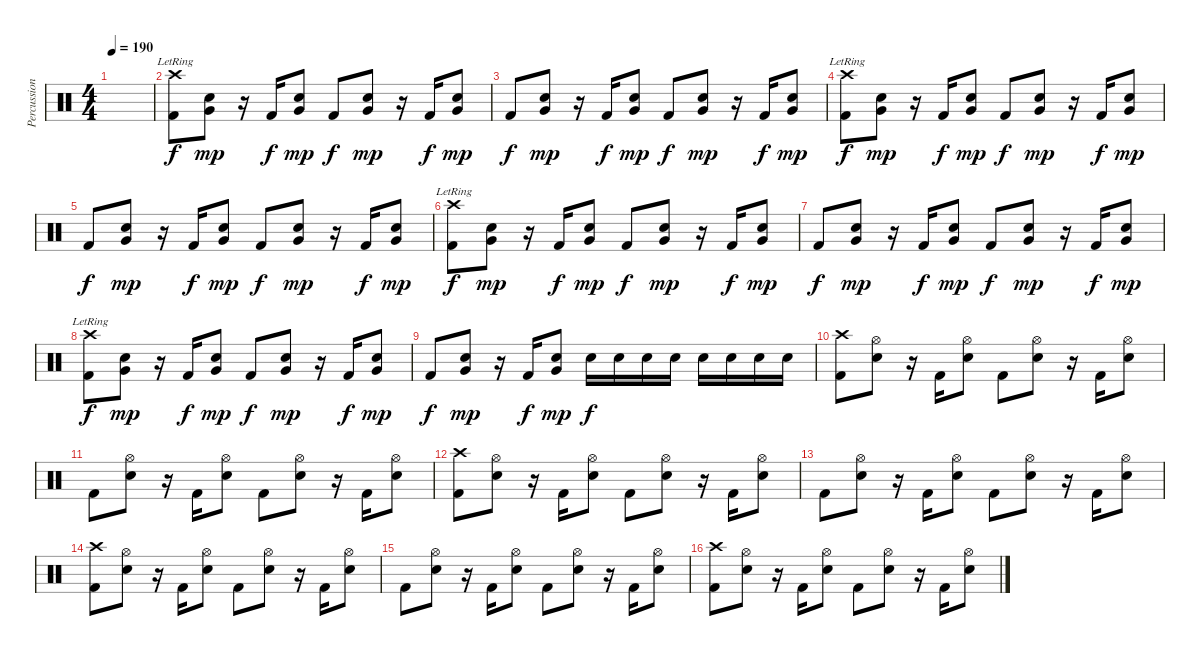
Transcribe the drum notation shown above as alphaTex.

\track ("Percussions" "Percussion") {instrument percussion}
\staff {score}
\articulation defaults
\ts (4 4)
\tempo 190
\clef neutral
\ks c
|
("Crash high (hit)"{lr} "Kick (hit) 2").8 ("Electric Snare (hit)" "Very Low Tom (hit)").8{dy mp} r.16 "Kick (hit) 2".16{dy f} ("Electric Snare (hit)" "Very Low Tom (hit)").8{dy mp} "Kick (hit) 2".8{dy f} ("Electric Snare (hit)" "Very Low Tom (hit)").8{dy mp} r.16 "Kick (hit) 2".16{dy f} ("Electric Snare (hit)" "Very Low Tom (hit)").8{dy mp} |
"Kick (hit) 2".8{dy f} ("Electric Snare (hit)" "Very Low Tom (hit)").8{dy mp} r.16 "Kick (hit) 2".16{dy f} ("Electric Snare (hit)" "Very Low Tom (hit)").8{dy mp} "Kick (hit) 2".8{dy f} ("Electric Snare (hit)" "Very Low Tom (hit)").8{dy mp} r.16 "Kick (hit) 2".16{dy f} ("Electric Snare (hit)" "Very Low Tom (hit)").8{dy mp} |
("Crash high (hit)"{lr} "Kick (hit) 2").8{dy f} ("Electric Snare (hit)" "Very Low Tom (hit)").8{dy mp} r.16 "Kick (hit) 2".16{dy f} ("Electric Snare (hit)" "Very Low Tom (hit)").8{dy mp} "Kick (hit) 2".8{dy f} ("Electric Snare (hit)" "Very Low Tom (hit)").8{dy mp} r.16 "Kick (hit) 2".16{dy f} ("Electric Snare (hit)" "Very Low Tom (hit)").8{dy mp} |
"Kick (hit) 2".8{dy f} ("Electric Snare (hit)" "Very Low Tom (hit)").8{dy mp} r.16 "Kick (hit) 2".16{dy f} ("Electric Snare (hit)" "Very Low Tom (hit)").8{dy mp} "Kick (hit) 2".8{dy f} ("Electric Snare (hit)" "Very Low Tom (hit)").8{dy mp} r.16 "Kick (hit) 2".16{dy f} ("Electric Snare (hit)" "Very Low Tom (hit)").8{dy mp} |
("Crash high (hit)"{lr} "Kick (hit) 2").8{dy f} ("Electric Snare (hit)" "Very Low Tom (hit)").8{dy mp} r.16 "Kick (hit) 2".16{dy f} ("Electric Snare (hit)" "Very Low Tom (hit)").8{dy mp} "Kick (hit) 2".8{dy f} ("Electric Snare (hit)" "Very Low Tom (hit)").8{dy mp} r.16 "Kick (hit) 2".16{dy f} ("Electric Snare (hit)" "Very Low Tom (hit)").8{dy mp} |
"Kick (hit) 2".8{dy f} ("Electric Snare (hit)" "Very Low Tom (hit)").8{dy mp} r.16 "Kick (hit) 2".16{dy f} ("Electric Snare (hit)" "Very Low Tom (hit)").8{dy mp} "Kick (hit) 2".8{dy f} ("Electric Snare (hit)" "Very Low Tom (hit)").8{dy mp} r.16 "Kick (hit) 2".16{dy f} ("Electric Snare (hit)" "Very Low Tom (hit)").8{dy mp} |
("Crash high (hit)"{lr} "Kick (hit) 2").8{dy f} ("Electric Snare (hit)" "Very Low Tom (hit)").8{dy mp} r.16 "Kick (hit) 2".16{dy f} ("Electric Snare (hit)" "Very Low Tom (hit)").8{dy mp} "Kick (hit) 2".8{dy f} ("Electric Snare (hit)" "Very Low Tom (hit)").8{dy mp} r.16 "Kick (hit) 2".16{dy f} ("Electric Snare (hit)" "Very Low Tom (hit)").8{dy mp} |
"Kick (hit) 2".8{dy f} ("Electric Snare (hit)" "Very Low Tom (hit)").8{dy mp} r.16 "Kick (hit) 2".16{dy f} ("Electric Snare (hit)" "Very Low Tom (hit)").8{dy mp} "Electric Snare (hit)".16{dy f} "Electric Snare (hit)".16 "Electric Snare (hit)".16 "Electric Snare (hit)".16 "Electric Snare (hit)".16 "Electric Snare (hit)".16 "Electric Snare (hit)".16 "Electric Snare (hit)".16 |
("Crash high (hit)" "Kick (hit) 2").8 ("Hi-Hat (open)" "Electric Snare (hit)").8 r.16 "Kick (hit) 2".16 ("Hi-Hat (open)" "Electric Snare (hit)").8 "Kick (hit) 2".8 ("Hi-Hat (open)" "Electric Snare (hit)").8 r.16 "Kick (hit) 2".16 ("Hi-Hat (open)" "Electric Snare (hit)").8 |
"Kick (hit) 2".8 ("Hi-Hat (open)" "Electric Snare (hit)").8 r.16 "Kick (hit) 2".16 ("Hi-Hat (open)" "Electric Snare (hit)").8 "Kick (hit) 2".8 ("Hi-Hat (open)" "Electric Snare (hit)").8 r.16 "Kick (hit) 2".16 ("Hi-Hat (open)" "Electric Snare (hit)").8 |
("Crash high (hit)" "Kick (hit) 2").8 ("Hi-Hat (open)" "Electric Snare (hit)").8 r.16 "Kick (hit) 2".16 ("Hi-Hat (open)" "Electric Snare (hit)").8 "Kick (hit) 2".8 ("Hi-Hat (open)" "Electric Snare (hit)").8 r.16 "Kick (hit) 2".16 ("Hi-Hat (open)" "Electric Snare (hit)").8 |
"Kick (hit) 2".8 ("Hi-Hat (open)" "Electric Snare (hit)").8 r.16 "Kick (hit) 2".16 ("Hi-Hat (open)" "Electric Snare (hit)").8 "Kick (hit) 2".8 ("Hi-Hat (open)" "Electric Snare (hit)").8 r.16 "Kick (hit) 2".16 ("Hi-Hat (open)" "Electric Snare (hit)").8 |
("Crash high (hit)" "Kick (hit) 2").8 ("Hi-Hat (open)" "Electric Snare (hit)").8 r.16 "Kick (hit) 2".16 ("Hi-Hat (open)" "Electric Snare (hit)").8 "Kick (hit) 2".8 ("Hi-Hat (open)" "Electric Snare (hit)").8 r.16 "Kick (hit) 2".16 ("Hi-Hat (open)" "Electric Snare (hit)").8 |
"Kick (hit) 2".8 ("Hi-Hat (open)" "Electric Snare (hit)").8 r.16 "Kick (hit) 2".16 ("Hi-Hat (open)" "Electric Snare (hit)").8 "Kick (hit) 2".8 ("Hi-Hat (open)" "Electric Snare (hit)").8 r.16 "Kick (hit) 2".16 ("Hi-Hat (open)" "Electric Snare (hit)").8 |
("Crash high (hit)" "Kick (hit) 2").8 ("Hi-Hat (open)" "Electric Snare (hit)").8 r.16 "Kick (hit) 2".16 ("Hi-Hat (open)" "Electric Snare (hit)").8 "Kick (hit) 2".8 ("Hi-Hat (open)" "Electric Snare (hit)").8 r.16 "Kick (hit) 2".16 ("Hi-Hat (open)" "Electric Snare (hit)").8
